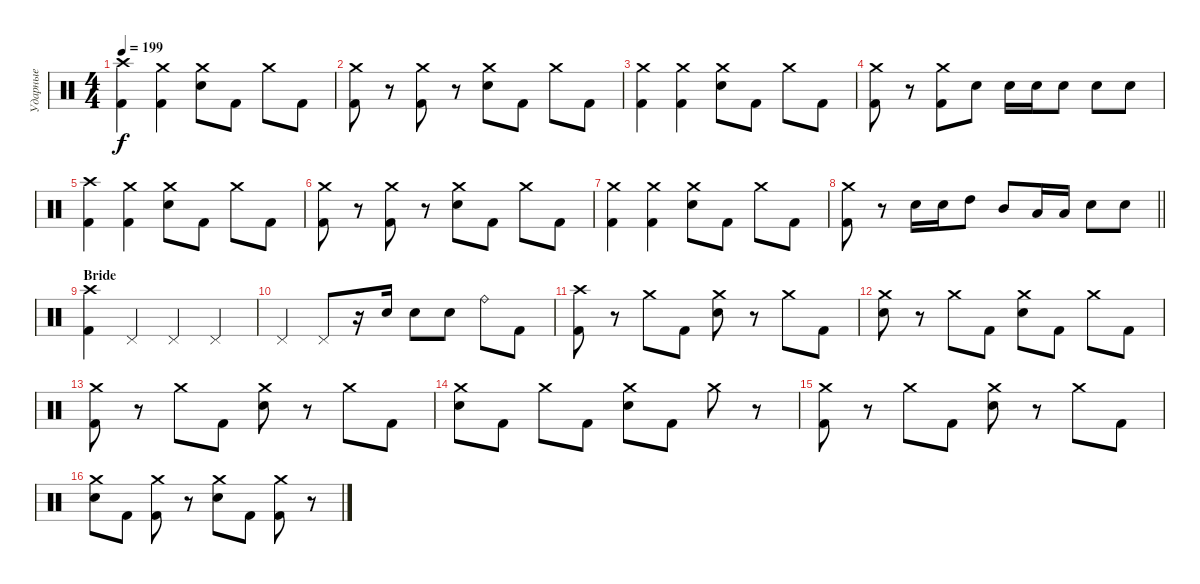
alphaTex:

\track ("Ударные" "Ударные") {instrument percussion}
\staff {score}
\articulation defaults
\ts (4 4)
\tempo 199
\clef neutral
\ks c
("Crash high (hit)" "Kick (hit) 2").4{dy f} ("Crash medium (hit)" "Kick (hit) 2").4 ("Crash medium (hit)" "Electric Snare (hit)").8 "Kick (hit) 2".8 "Crash medium (hit)".8 "Kick (hit) 2".8 |
("Crash medium (hit)" "Kick (hit) 2").8 r.8 ("Crash medium (hit)" "Kick (hit) 2").8 r.8 ("Crash medium (hit)" "Electric Snare (hit)").8 "Kick (hit) 2".8 "Crash medium (hit)".8 "Kick (hit) 2".8 |
("Crash medium (hit)" "Kick (hit) 2").4 ("Crash medium (hit)" "Kick (hit) 2").4 ("Crash medium (hit)" "Electric Snare (hit)").8 "Kick (hit) 2".8 "Crash medium (hit)".8 "Kick (hit) 2".8 |
("Crash medium (hit)" "Kick (hit) 2").8 r.8 ("Crash medium (hit)" "Kick (hit) 2").8 "Electric Snare (hit)".8 "Electric Snare (hit)".16 "Electric Snare (hit)".16 "Electric Snare (hit)".8 "Electric Snare (hit)".8 "Electric Snare (hit)".8 |
("Crash high (hit)" "Kick (hit) 2").4 ("Crash medium (hit)" "Kick (hit) 2").4 ("Crash medium (hit)" "Electric Snare (hit)").8 "Kick (hit) 2".8 "Crash medium (hit)".8 "Kick (hit) 2".8 |
("Crash medium (hit)" "Kick (hit) 2").8 r.8 ("Crash medium (hit)" "Kick (hit) 2").8 r.8 ("Crash medium (hit)" "Electric Snare (hit)").8 "Kick (hit) 2".8 "Crash medium (hit)".8 "Kick (hit) 2".8 |
("Crash medium (hit)" "Kick (hit) 2").4 ("Crash medium (hit)" "Kick (hit) 2").4 ("Crash medium (hit)" "Electric Snare (hit)").8 "Kick (hit) 2".8 "Crash medium (hit)".8 "Kick (hit) 2".8 |
\barLineRight lightlight
("Crash medium (hit)" "Kick (hit) 2").8 r.8 "Electric Snare (hit)".16 "Electric Snare (hit)".16 "High Tom (hit)".8 "Mid Tom (hit)".8 "Low Tom (hit)".16 "Low Tom (hit)".16 "Electric Snare (hit)".8 "Electric Snare (hit)".8 |
\section ("" "Bride")
("Crash high (hit)" "Kick (hit) 2").4 "Pedal Hi-Hat (hit)".4 "Pedal Hi-Hat (hit)".4 "Pedal Hi-Hat (hit)".4 |
"Pedal Hi-Hat (hit)".4 "Pedal Hi-Hat (hit)".8 r.16 "Electric Snare (hit)".16 "Electric Snare (hit)".8 "Electric Snare (hit)".8 "Ride (bell)".8 "Kick (hit) 2".8 |
("Crash high (hit)" "Kick (hit) 2").8 r.8 "Crash medium (hit)".8 "Kick (hit) 2".8 ("Crash medium (hit)" "Electric Snare (hit)").8 r.8 "Crash medium (hit)".8 "Kick (hit) 2".8 |
("Crash medium (hit)" "Electric Snare (hit)").8 r.8 "Crash medium (hit)".8 "Kick (hit) 2".8 ("Crash medium (hit)" "Electric Snare (hit)").8 "Kick (hit) 2".8 "Crash medium (hit)".8 "Kick (hit) 2".8 |
("Crash medium (hit)" "Kick (hit) 2").8 r.8 "Crash medium (hit)".8 "Kick (hit) 2".8 ("Crash medium (hit)" "Electric Snare (hit)").8 r.8 "Crash medium (hit)".8 "Kick (hit) 2".8 |
("Crash medium (hit)" "Electric Snare (hit)").8 "Kick (hit) 2".8 "Crash medium (hit)".8 "Kick (hit) 2".8 ("Crash medium (hit)" "Electric Snare (hit)").8 "Kick (hit) 2".8 "Crash medium (hit)".8 r.8 |
("Crash medium (hit)" "Kick (hit) 2").8 r.8 "Crash medium (hit)".8 "Kick (hit) 2".8 ("Crash medium (hit)" "Electric Snare (hit)").8 r.8 "Crash medium (hit)".8 "Kick (hit) 2".8 |
("Crash medium (hit)" "Electric Snare (hit)").8 "Kick (hit) 2".8 ("Crash medium (hit)" "Kick (hit) 2").8 r.8 ("Crash medium (hit)" "Electric Snare (hit)").8 "Kick (hit) 2".8 ("Crash medium (hit)" "Kick (hit) 2").8 r.8
